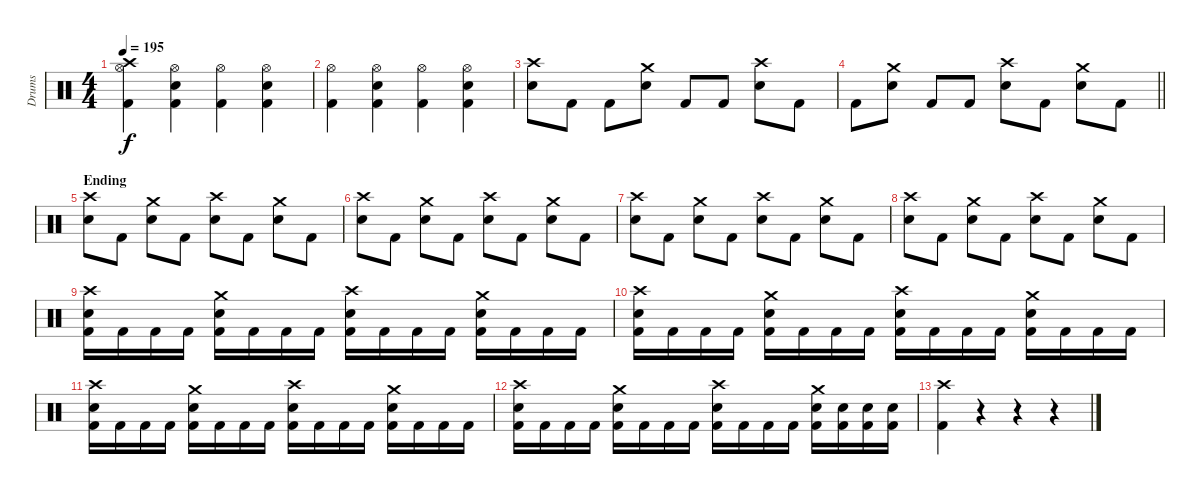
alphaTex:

\track ("Drums" "Drums") {instrument percussion}
\staff {score}
\articulation defaults
\ts (4 4)
\tempo 195
\clef neutral
\ks c
("Crash high (hit)" "Hi-Hat (open)" "Kick (hit) 2").4{dy f} ("Hi-Hat (open)" "Snare (hit) 2" "Kick (hit) 2").4 ("Hi-Hat (open)" "Kick (hit) 2").4 ("Hi-Hat (open)" "Snare (hit) 2" "Kick (hit) 2").4 |
("Hi-Hat (open)" "Kick (hit) 2").4 ("Hi-Hat (open)" "Snare (hit) 2" "Kick (hit) 2").4 ("Hi-Hat (open)" "Kick (hit) 2").4 ("Hi-Hat (open)" "Snare (hit) 2" "Kick (hit) 2").4 |
("Crash high (hit)" "Snare (hit) 2").8 "Kick (hit) 2".8 "Kick (hit) 2".8 ("Crash medium (hit)" "Snare (hit) 2").8 "Kick (hit) 2".8 "Kick (hit) 2".8 ("Crash high (hit)" "Snare (hit) 2").8 "Kick (hit) 2".8 |
\barLineRight lightlight "Kick (hit) 2".8
("Crash medium (hit)" "Snare (hit) 2").8 "Kick (hit) 2".8 "Kick (hit) 2".8 ("Crash high (hit)" "Snare (hit) 2").8 "Kick (hit) 2".8 ("Crash medium (hit)" "Snare (hit) 2").8 "Kick (hit) 2".8 |
\section ("" "Ending")
("Crash high (hit)" "Snare (hit) 2").8 "Kick (hit) 2".8 ("Crash medium (hit)" "Snare (hit) 2").8 "Kick (hit) 2".8 ("Crash high (hit)" "Snare (hit) 2").8 "Kick (hit) 2".8 ("Crash medium (hit)" "Snare (hit) 2").8 "Kick (hit) 2".8 |
("Crash high (hit)" "Snare (hit) 2").8 "Kick (hit) 2".8 ("Crash medium (hit)" "Snare (hit) 2").8 "Kick (hit) 2".8 ("Crash high (hit)" "Snare (hit) 2").8 "Kick (hit) 2".8 ("Crash medium (hit)" "Snare (hit) 2").8 "Kick (hit) 2".8 |
("Crash high (hit)" "Snare (hit) 2").8 "Kick (hit) 2".8 ("Crash medium (hit)" "Snare (hit) 2").8 "Kick (hit) 2".8 ("Crash high (hit)" "Snare (hit) 2").8 "Kick (hit) 2".8 ("Crash medium (hit)" "Snare (hit) 2").8 "Kick (hit) 2".8 |
("Crash high (hit)" "Snare (hit) 2").8 "Kick (hit) 2".8 ("Crash medium (hit)" "Snare (hit) 2").8 "Kick (hit) 2".8 ("Crash high (hit)" "Snare (hit) 2").8 "Kick (hit) 2".8 ("Crash medium (hit)" "Snare (hit) 2").8 "Kick (hit) 2".8 |
("Crash high (hit)" "Snare (hit) 2" "Kick (hit) 2").16 "Kick (hit) 2".16 "Kick (hit) 2".16 "Kick (hit) 2".16 ("Crash medium (hit)" "Snare (hit) 2" "Kick (hit) 2").16 "Kick (hit) 2".16 "Kick (hit) 2".16 "Kick (hit) 2".16 ("Crash high (hit)" "Snare (hit) 2" "Kick (hit) 2").16 "Kick (hit) 2".16 "Kick (hit) 2".16 "Kick (hit) 2".16 ("Crash medium (hit)" "Snare (hit) 2" "Kick (hit) 2").16 "Kick (hit) 2".16 "Kick (hit) 2".16 "Kick (hit) 2".16 |
("Crash high (hit)" "Snare (hit) 2" "Kick (hit) 2").16 "Kick (hit) 2".16 "Kick (hit) 2".16 "Kick (hit) 2".16 ("Crash medium (hit)" "Snare (hit) 2" "Kick (hit) 2").16 "Kick (hit) 2".16 "Kick (hit) 2".16 "Kick (hit) 2".16 ("Crash high (hit)" "Snare (hit) 2" "Kick (hit) 2").16 "Kick (hit) 2".16 "Kick (hit) 2".16 "Kick (hit) 2".16 ("Crash medium (hit)" "Snare (hit) 2" "Kick (hit) 2").16 "Kick (hit) 2".16 "Kick (hit) 2".16 "Kick (hit) 2".16 |
("Crash high (hit)" "Snare (hit) 2" "Kick (hit) 2").16 "Kick (hit) 2".16 "Kick (hit) 2".16 "Kick (hit) 2".16 ("Crash medium (hit)" "Snare (hit) 2" "Kick (hit) 2").16 "Kick (hit) 2".16 "Kick (hit) 2".16 "Kick (hit) 2".16 ("Crash high (hit)" "Snare (hit) 2" "Kick (hit) 2").16 "Kick (hit) 2".16 "Kick (hit) 2".16 "Kick (hit) 2".16 ("Crash medium (hit)" "Snare (hit) 2" "Kick (hit) 2").16 "Kick (hit) 2".16 "Kick (hit) 2".16 "Kick (hit) 2".16 |
("Crash high (hit)" "Snare (hit) 2" "Kick (hit) 2").16 "Kick (hit) 2".16 "Kick (hit) 2".16 "Kick (hit) 2".16 ("Crash medium (hit)" "Snare (hit) 2" "Kick (hit) 2").16 "Kick (hit) 2".16 "Kick (hit) 2".16 "Kick (hit) 2".16 ("Crash high (hit)" "Snare (hit) 2" "Kick (hit) 2").16 "Kick (hit) 2".16 "Kick (hit) 2".16 "Kick (hit) 2".16 ("Crash medium (hit)" "Snare (hit) 2" "Kick (hit) 2").16 ("Snare (hit) 2" "Kick (hit) 2").16 ("Snare (hit) 2" "Kick (hit) 2").16 ("Snare (hit) 2" "Kick (hit) 2").16 |
("Crash high (hit)" "Kick (hit) 2").4 r.4 r.4 r.4
